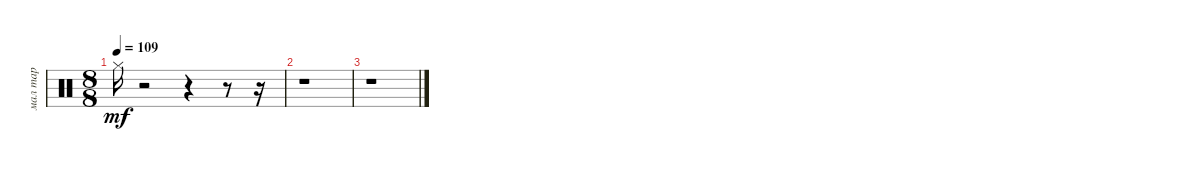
\track ("мал тар" "мал тар") {instrument percussion}
\staff {score}
\articulation defaults
\ts (8 8)
\tempo 109
\clef neutral
\ks c "Hi-Hat (closed)".16{dy mf}
r.2 r.4 r.8 r.16 |
r.1 |
r.1
